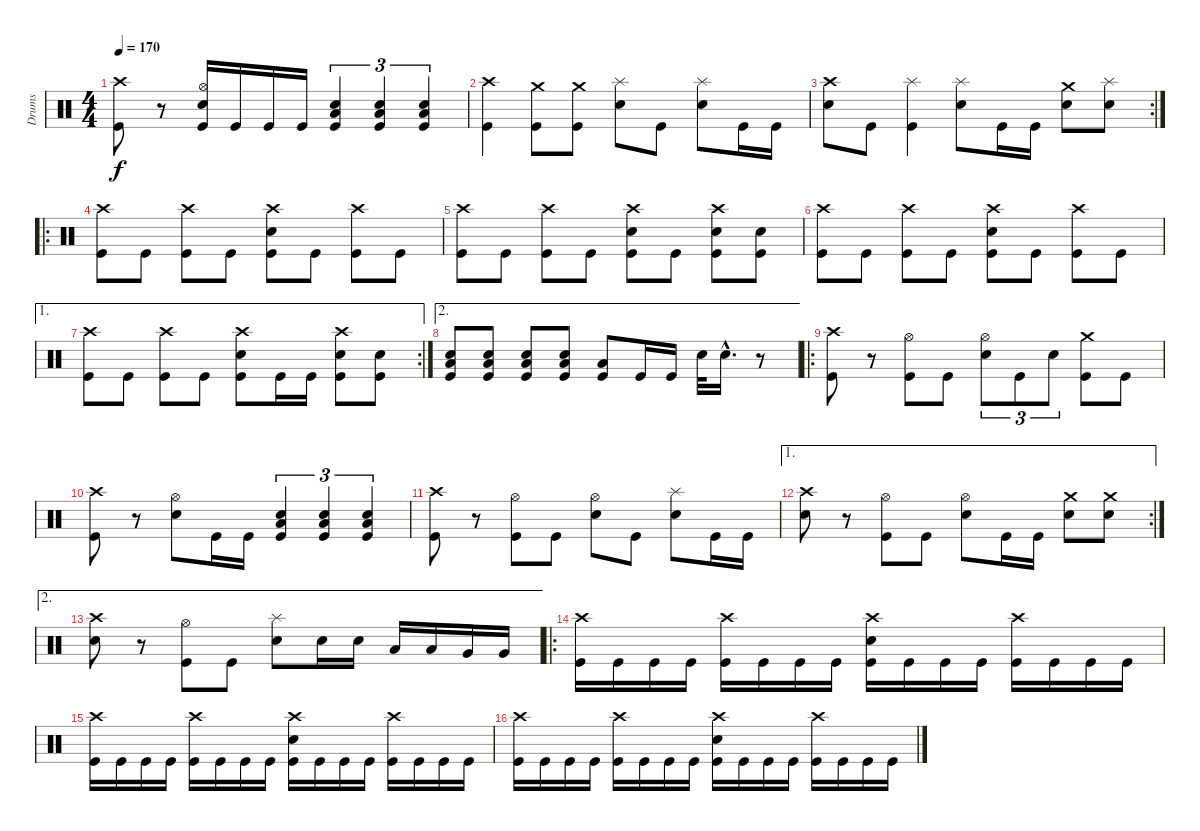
\track ("Drums" "Drums") {instrument percussion}
\staff {score}
\articulation defaults
\ts (4 4)
\tempo 170
\clef neutral
\ks c
("Crash high (hit)" "Kick (hit)").8{dy f} r.8 ("Hi-Hat (open)" "Electric Snare (hit)" "Kick (hit)").16 "Kick (hit)".16 "Kick (hit)".16 "Kick (hit)".16 ("Low Tom (hit)" "Electric Snare (hit)" "Kick (hit)").4{tu (3 2)} ("Low Tom (hit)" "Electric Snare (hit)" "Kick (hit)").4{tu (3 2)} ("Low Tom (hit)" "Electric Snare (hit)" "Kick (hit)").4{tu (3 2)} |
("Crash high (hit)" "Kick (hit)").4 ("Crash medium (hit)" "Kick (hit)").8 ("Crash medium (hit)" "Kick (hit)").8 ("Splash (hit)" "Electric Snare (hit)").8 "Kick (hit)".8 ("Splash (hit)" "Electric Snare (hit)").8 "Kick (hit)".16 "Kick (hit)".16 |
\rc 2
("Crash high (hit)" "Electric Snare (hit)").8 "Kick (hit)".8 ("Splash (hit)" "Kick (hit)").4 ("Splash (hit)" "Electric Snare (hit)").8 "Kick (hit)".16 "Kick (hit)".16 ("Crash medium (hit)" "Electric Snare (hit)").8 ("Splash (hit)" "Electric Snare (hit)").8 |
\ro
("Crash high (hit)" "Kick (hit)").8 "Kick (hit)".8 ("Crash high (hit)" "Kick (hit)").8 "Kick (hit)".8 ("Crash high (hit)" "Electric Snare (hit)" "Kick (hit)").8 "Kick (hit)".8 ("Crash high (hit)" "Kick (hit)").8 "Kick (hit)".8 |
("Crash high (hit)" "Kick (hit)").8 "Kick (hit)".8 ("Crash high (hit)" "Kick (hit)").8 "Kick (hit)".8 ("Crash high (hit)" "Electric Snare (hit)" "Kick (hit)").8 "Kick (hit)".8 ("Crash high (hit)" "Electric Snare (hit)" "Kick (hit)").8 ("Electric Snare (hit)" "Kick (hit)").8 |
("Crash high (hit)" "Kick (hit)").8 "Kick (hit)".8 ("Crash high (hit)" "Kick (hit)").8 "Kick (hit)".8 ("Crash high (hit)" "Electric Snare (hit)" "Kick (hit)").8 "Kick (hit)".8 ("Crash high (hit)" "Kick (hit)").8 "Kick (hit)".8 |
\ae 1
\rc 2
("Crash high (hit)" "Kick (hit)").8 "Kick (hit)".8 ("Crash high (hit)" "Kick (hit)").8 "Kick (hit)".8 ("Crash high (hit)" "Electric Snare (hit)" "Kick (hit)").8 "Kick (hit)".16 "Kick (hit)".16 ("Crash high (hit)" "Electric Snare (hit)" "Kick (hit)").8 ("Electric Snare (hit)" "Kick (hit)").8 |
\ae 2
("Low Tom (hit)" "Electric Snare (hit)" "Kick (hit)").8 ("Low Tom (hit)" "Electric Snare (hit)" "Kick (hit)").8 ("Low Tom (hit)" "Electric Snare (hit)" "Kick (hit)").8 ("Low Tom (hit)" "Electric Snare (hit)" "Kick (hit)").8 ("Low Tom (hit)" "Kick (hit)").8 "Kick (hit)".16 "Kick (hit)".16 "Electric Snare (hit)".32 "Electric Snare (hit)"{hac}.16{d} r.8 |
\ro
("Crash high (hit)" "Kick (hit)").8 r.8 ("Hi-Hat (open)" "Kick (hit)").8 "Kick (hit)".8 ("Hi-Hat (open)" "Electric Snare (hit)").8{tu (3 2)} "Kick (hit)".8{tu (3 2)} "Electric Snare (hit)".8{tu (3 2)} ("Crash medium (hit)" "Kick (hit)").8 "Kick (hit)".8 |
("Crash high (hit)" "Kick (hit)").8 r.8 ("Hi-Hat (open)" "Electric Snare (hit)").8 "Kick (hit)".16 "Kick (hit)".16 ("Low Tom (hit)" "Electric Snare (hit)" "Kick (hit)").4{tu (3 2)} ("Low Tom (hit)" "Electric Snare (hit)" "Kick (hit)").4{tu (3 2)} ("Low Tom (hit)" "Electric Snare (hit)" "Kick (hit)").4{tu (3 2)} |
("Crash high (hit)" "Kick (hit)").8 r.8 ("Hi-Hat (open)" "Kick (hit)").8 "Kick (hit)".8 ("Hi-Hat (open)" "Electric Snare (hit)").8 "Kick (hit)".8 ("Splash (hit)" "Electric Snare (hit)").8 "Kick (hit)".16 "Kick (hit)".16 |
\ae 1
\rc 2
("Crash high (hit)" "Electric Snare (hit)").8 r.8 ("Hi-Hat (open)" "Kick (hit)").8 "Kick (hit)".8 ("Hi-Hat (open)" "Electric Snare (hit)").8 "Kick (hit)".16 "Kick (hit)".16 ("Crash medium (hit)" "Electric Snare (hit)").8 ("Crash medium (hit)" "Electric Snare (hit)").8 |
\ae 2
("Crash high (hit)" "Electric Snare (hit)").8 r.8 ("Hi-Hat (open)" "Kick (hit)").8 "Kick (hit)".8 ("Splash (hit)" "Electric Snare (hit)").8 "Electric Snare (hit)".16 "Electric Snare (hit)".16 "Low Tom (hit)".16 "Low Tom (hit)".16 "Very Low Tom (hit)".16 "Very Low Tom (hit)".16 |
\ro
("Crash high (hit)" "Kick (hit)").16 "Kick (hit)".16 "Kick (hit)".16 "Kick (hit)".16 ("Crash high (hit)" "Kick (hit)").16 "Kick (hit)".16 "Kick (hit)".16 "Kick (hit)".16 ("Crash high (hit)" "Electric Snare (hit)" "Kick (hit)").16 "Kick (hit)".16 "Kick (hit)".16 "Kick (hit)".16 ("Crash high (hit)" "Kick (hit)").16 "Kick (hit)".16 "Kick (hit)".16 "Kick (hit)".16 |
("Crash high (hit)" "Kick (hit)").16 "Kick (hit)".16 "Kick (hit)".16 "Kick (hit)".16 ("Crash high (hit)" "Kick (hit)").16 "Kick (hit)".16 "Kick (hit)".16 "Kick (hit)".16 ("Crash high (hit)" "Electric Snare (hit)" "Kick (hit)").16 "Kick (hit)".16 "Kick (hit)".16 "Kick (hit)".16 ("Crash high (hit)" "Kick (hit)").16 "Kick (hit)".16 "Kick (hit)".16 "Kick (hit)".16 |
("Crash high (hit)" "Kick (hit)").16 "Kick (hit)".16 "Kick (hit)".16 "Kick (hit)".16 ("Crash high (hit)" "Kick (hit)").16 "Kick (hit)".16 "Kick (hit)".16 "Kick (hit)".16 ("Crash high (hit)" "Electric Snare (hit)" "Kick (hit)").16 "Kick (hit)".16 "Kick (hit)".16 "Kick (hit)".16 ("Crash high (hit)" "Kick (hit)").16 "Kick (hit)".16 "Kick (hit)".16 "Kick (hit)".16
